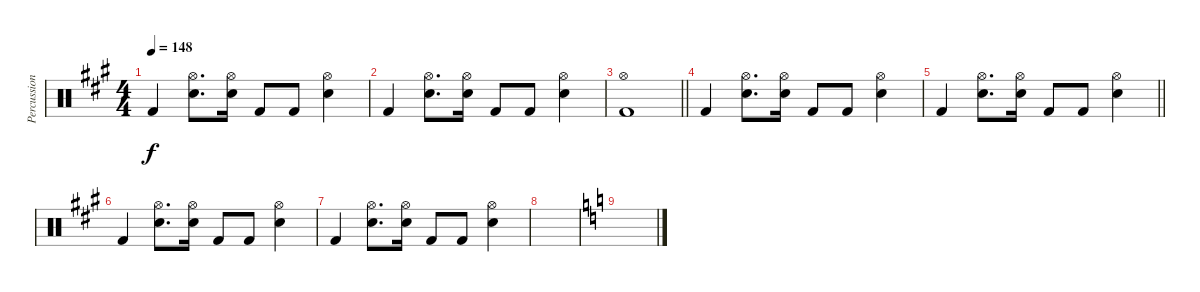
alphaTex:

\track ("Percussion" "Percussion") {instrument percussion}
\staff {score}
\articulation defaults
\ts (4 4)
\tempo 148
\clef neutral
\ks a "Kick (hit) 2".4{dy f}
("Hi-Hat (open)" "Electric Snare (hit)").8{d} ("Hi-Hat (open)" "Electric Snare (hit)").16 "Kick (hit) 2".8 "Kick (hit) 2".8 ("Hi-Hat (open)" "Electric Snare (hit)").4 |
"Kick (hit) 2".4 ("Hi-Hat (open)" "Electric Snare (hit)").8{d} ("Hi-Hat (open)" "Electric Snare (hit)").16 "Kick (hit) 2".8 "Kick (hit) 2".8 ("Hi-Hat (open)" "Electric Snare (hit)").4 |
\barLineRight lightlight
("Hi-Hat (open)" "Kick (hit) 2").1 |
"Kick (hit) 2".4 ("Hi-Hat (open)" "Electric Snare (hit)").8{d} ("Hi-Hat (open)" "Electric Snare (hit)").16 "Kick (hit) 2".8 "Kick (hit) 2".8 ("Hi-Hat (open)" "Electric Snare (hit)").4 |
\barLineRight lightlight "Kick (hit) 2".4
("Hi-Hat (open)" "Electric Snare (hit)").8{d} ("Hi-Hat (open)" "Electric Snare (hit)").16 "Kick (hit) 2".8 "Kick (hit) 2".8 ("Hi-Hat (open)" "Electric Snare (hit)").4 |
"Kick (hit) 2".4 ("Hi-Hat (open)" "Electric Snare (hit)").8{d} ("Hi-Hat (open)" "Electric Snare (hit)").16 "Kick (hit) 2".8 "Kick (hit) 2".8 ("Hi-Hat (open)" "Electric Snare (hit)").4 |
"Kick (hit) 2".4 ("Hi-Hat (open)" "Electric Snare (hit)").8{d} ("Hi-Hat (open)" "Electric Snare (hit)").16 "Kick (hit) 2".8 "Kick (hit) 2".8 ("Hi-Hat (open)" "Electric Snare (hit)").4 |
|
\ks c
